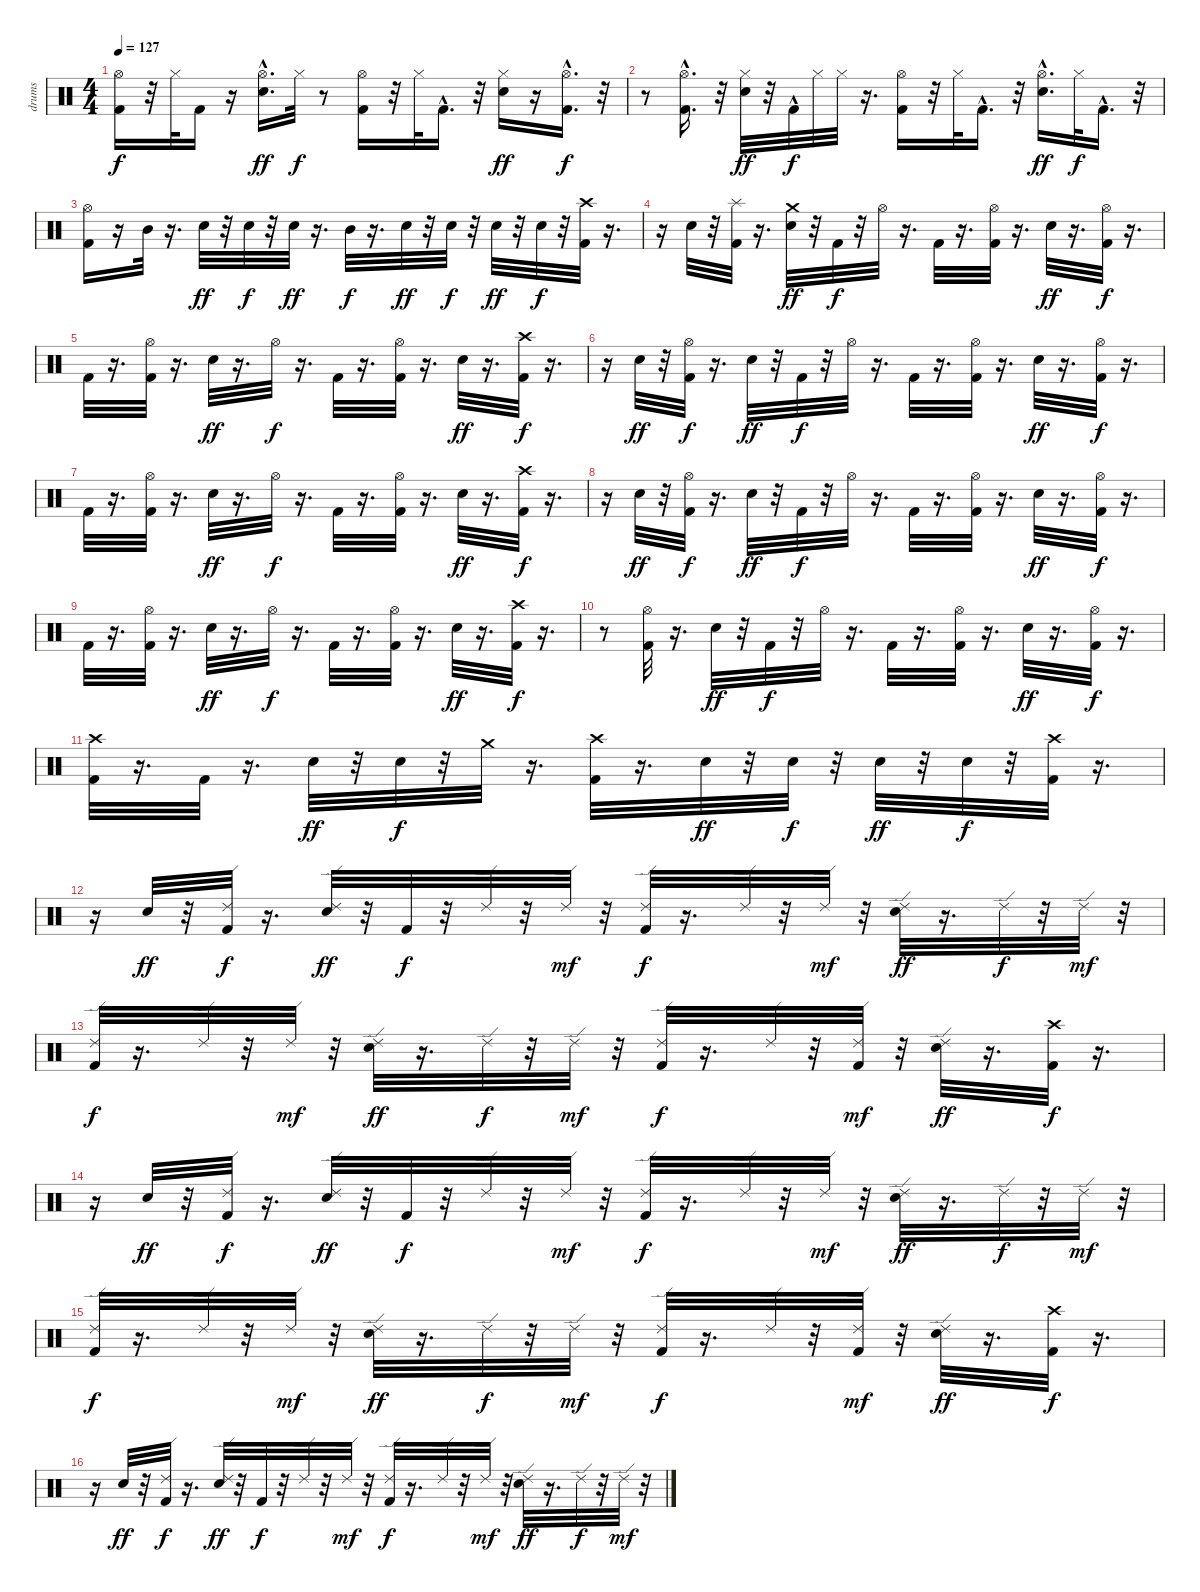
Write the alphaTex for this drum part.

\track ("drums" "drums") {instrument percussion}
\staff {score}
\articulation defaults
\ts (4 4)
\tempo 127
\clef neutral
\ks c
("Kick (hit) 2" "Hi-Hat (open)").16{dy f} r.32 "Hi-Hat (closed)".32 "Kick (hit) 2".16 r.16 ("Electric Snare (hit)"{hac} "Hi-Hat (open)").16{d dy ff} "Hi-Hat (closed)".32{dy f} r.8 ("Kick (hit) 2" "Hi-Hat (open)").16 r.32 "Hi-Hat (closed)".32 "Kick (hit) 2"{hac}.16{d} r.32 ("Electric Snare (hit)" "Hi-Hat (closed)").16{dy ff} r.16 ("Kick (hit) 2"{hac} "Hi-Hat (open)").16{d dy f} r.32 |
r.8 ("Kick (hit) 2"{hac} "Hi-Hat (open)").16{d} r.32 ("Electric Snare (hit)" "Hi-Hat (closed)").32{dy ff} r.32 "Kick (hit) 2"{hac}.32{dy f} "Hi-Hat (closed)".32 "Hi-Hat (closed)".32 r.16{d} ("Kick (hit) 2" "Hi-Hat (open)").16 r.32 "Hi-Hat (closed)".32 "Kick (hit) 2"{hac}.16{d} r.32 ("Electric Snare (hit)"{hac} "Hi-Hat (open)").16{d dy ff} "Hi-Hat (closed)".32{dy f} "Kick (hit) 2"{hac}.16{d} r.32 |
("Kick (hit) 2" "Hi-Hat (open)").16 r.16 "Mid Tom (hit)".32 r.16{d} "Electric Snare (hit)".32{dy ff} r.32 "Electric Snare (hit)".32{dy f} r.32 "Electric Snare (hit)".32{dy ff} r.16{d} "Mid Tom (hit)".32{dy f} r.16{d} "Electric Snare (hit)".32{dy ff} r.32 "Electric Snare (hit)".32{dy f} r.32 "Electric Snare (hit)".32{dy ff} r.32 "Electric Snare (hit)".32{dy f} r.32 ("Kick (hit) 2" "Crash high (hit)").32 r.16{d} |
r.16 "Electric Snare (hit)".32 r.32 ("Splash (hit)" "Kick (hit) 2").32 r.16{d} ("Crash medium (hit)" "Electric Snare (hit)").32{dy ff} r.32 "Kick (hit) 2".32{dy f} r.32 "Hi-Hat (open)".32 r.16{d} "Kick (hit) 2".32 r.16{d} ("Hi-Hat (open)" "Kick (hit) 2").32 r.16{d} "Electric Snare (hit)".32{dy ff} r.16{d} ("Hi-Hat (open)" "Kick (hit) 2").32{dy f} r.16{d} |
"Kick (hit) 2".32 r.16{d} ("Hi-Hat (open)" "Kick (hit) 2").32 r.16{d} "Electric Snare (hit)".32{dy ff} r.16{d} "Hi-Hat (open)".32{dy f} r.16{d} "Kick (hit) 2".32 r.16{d} ("Hi-Hat (open)" "Kick (hit) 2").32 r.16{d} "Electric Snare (hit)".32{dy ff} r.16{d} ("Crash high (hit)" "Kick (hit) 2").32{dy f} r.16{d} |
r.16 "Electric Snare (hit)".32{dy ff} r.32 ("Kick (hit) 2" "Hi-Hat (open)").32{dy f} r.16{d} "Electric Snare (hit)".32{dy ff} r.32 "Kick (hit) 2".32{dy f} r.32 "Hi-Hat (open)".32 r.16{d} "Kick (hit) 2".32 r.16{d} ("Kick (hit) 2" "Hi-Hat (open)").32 r.16{d} "Electric Snare (hit)".32{dy ff} r.16{d} ("Kick (hit) 2" "Hi-Hat (open)").32{dy f} r.16{d} |
"Kick (hit) 2".32 r.16{d} ("Kick (hit) 2" "Hi-Hat (open)").32 r.16{d} "Electric Snare (hit)".32{dy ff} r.16{d} "Hi-Hat (open)".32{dy f} r.16{d} "Kick (hit) 2".32 r.16{d} ("Kick (hit) 2" "Hi-Hat (open)").32 r.16{d} "Electric Snare (hit)".32{dy ff} r.16{d} ("Crash high (hit)" "Kick (hit) 2").32{dy f} r.16{d} |
r.16 "Electric Snare (hit)".32{dy ff} r.32 ("Kick (hit) 2" "Hi-Hat (open)").32{dy f} r.16{d} "Electric Snare (hit)".32{dy ff} r.32 "Kick (hit) 2".32{dy f} r.32 "Hi-Hat (open)".32 r.16{d} "Kick (hit) 2".32 r.16{d} ("Kick (hit) 2" "Hi-Hat (open)").32 r.16{d} "Electric Snare (hit)".32{dy ff} r.16{d} ("Kick (hit) 2" "Hi-Hat (open)").32{dy f} r.16{d} |
"Kick (hit) 2".32 r.16{d} ("Kick (hit) 2" "Hi-Hat (open)").32 r.16{d} "Electric Snare (hit)".32{dy ff} r.16{d} "Hi-Hat (open)".32{dy f} r.16{d} "Kick (hit) 2".32 r.16{d} ("Kick (hit) 2" "Hi-Hat (open)").32 r.16{d} "Electric Snare (hit)".32{dy ff} r.16{d} ("Crash high (hit)" "Kick (hit) 2").32{dy f} r.16{d} |
r.8 ("Kick (hit) 2" "Hi-Hat (open)").32 r.16{d} "Electric Snare (hit)".32{dy ff} r.32 "Kick (hit) 2".32{dy f} r.32 "Hi-Hat (open)".32 r.16{d} "Kick (hit) 2".32 r.16{d} ("Kick (hit) 2" "Hi-Hat (open)").32 r.16{d} "Electric Snare (hit)".32{dy ff} r.16{d} ("Kick (hit) 2" "Hi-Hat (open)").32{dy f} r.16{d} |
("Crash high (hit)" "Kick (hit) 2").32 r.16{d} "Kick (hit) 2".32 r.16{d} "Electric Snare (hit)".32{dy ff} r.32 "Electric Snare (hit)".32{dy f} r.32 "Crash medium (hit)".32 r.16{d} ("Crash high (hit)" "Kick (hit) 2").32 r.16{d} "Electric Snare (hit)".32{dy ff} r.32 "Electric Snare (hit)".32{dy f} r.32 "Electric Snare (hit)".32{dy ff} r.32 "Electric Snare (hit)".32{dy f} r.32 ("Crash high (hit)" "Kick (hit) 2").32 r.16{d} |
r.16 "Electric Snare (hit)".32{dy ff} r.32 ("Ride (edge) 2" "Kick (hit) 2").32{dy f} r.16{d} ("Ride (edge) 2" "Electric Snare (hit)").32{dy ff} r.32 "Kick (hit) 2".32{dy f} r.32 "Ride (edge) 2".32 r.32 "Ride (edge) 2".32{dy mf} r.32 ("Ride (edge) 2" "Kick (hit) 2").32{dy f} r.16{d} "Ride (edge) 2".32 r.32 "Ride (edge) 2".32{dy mf} r.32 ("Ride (edge) 2" "Electric Snare (hit)").32{dy ff} r.16{d} "Ride (edge) 2".32{dy f} r.32 "Ride (edge) 2".32{dy mf} r.32 |
("Ride (edge) 2" "Kick (hit) 2").32{dy f} r.16{d} "Ride (edge) 2".32 r.32 "Ride (edge) 2".32{dy mf} r.32 ("Ride (edge) 2" "Electric Snare (hit)").32{dy ff} r.16{d} "Ride (edge) 2".32{dy f} r.32 "Ride (edge) 2".32{dy mf} r.32 ("Ride (edge) 2" "Kick (hit) 2").32{dy f} r.16{d} "Ride (edge) 2".32 r.32 ("Ride (edge) 2" "Kick (hit) 2").32{dy mf} r.32 ("Ride (edge) 2" "Electric Snare (hit)").32{dy ff} r.16{d} ("Crash high (hit)" "Kick (hit) 2").32{dy f} r.16{d} |
r.16 "Electric Snare (hit)".32{dy ff} r.32 ("Ride (edge) 2" "Kick (hit) 2").32{dy f} r.16{d} ("Ride (edge) 2" "Electric Snare (hit)").32{dy ff} r.32 "Kick (hit) 2".32{dy f} r.32 "Ride (edge) 2".32 r.32 "Ride (edge) 2".32{dy mf} r.32 ("Ride (edge) 2" "Kick (hit) 2").32{dy f} r.16{d} "Ride (edge) 2".32 r.32 "Ride (edge) 2".32{dy mf} r.32 ("Ride (edge) 2" "Electric Snare (hit)").32{dy ff} r.16{d} "Ride (edge) 2".32{dy f} r.32 "Ride (edge) 2".32{dy mf} r.32 |
("Ride (edge) 2" "Kick (hit) 2").32{dy f} r.16{d} "Ride (edge) 2".32 r.32 "Ride (edge) 2".32{dy mf} r.32 ("Ride (edge) 2" "Electric Snare (hit)").32{dy ff} r.16{d} "Ride (edge) 2".32{dy f} r.32 "Ride (edge) 2".32{dy mf} r.32 ("Ride (edge) 2" "Kick (hit) 2").32{dy f} r.16{d} "Ride (edge) 2".32 r.32 ("Ride (edge) 2" "Kick (hit) 2").32{dy mf} r.32 ("Ride (edge) 2" "Electric Snare (hit)").32{dy ff} r.16{d} ("Crash high (hit)" "Kick (hit) 2").32{dy f} r.16{d} |
r.16 "Electric Snare (hit)".32{dy ff} r.32 ("Ride (edge) 2" "Kick (hit) 2").32{dy f} r.16{d} ("Ride (edge) 2" "Electric Snare (hit)").32{dy ff} r.32 "Kick (hit) 2".32{dy f} r.32 "Ride (edge) 2".32 r.32 "Ride (edge) 2".32{dy mf} r.32 ("Ride (edge) 2" "Kick (hit) 2").32{dy f} r.16{d} "Ride (edge) 2".32 r.32 "Ride (edge) 2".32{dy mf} r.32 ("Ride (edge) 2" "Electric Snare (hit)").32{dy ff} r.16{d} "Ride (edge) 2".32{dy f} r.32 "Ride (edge) 2".32{dy mf} r.32
